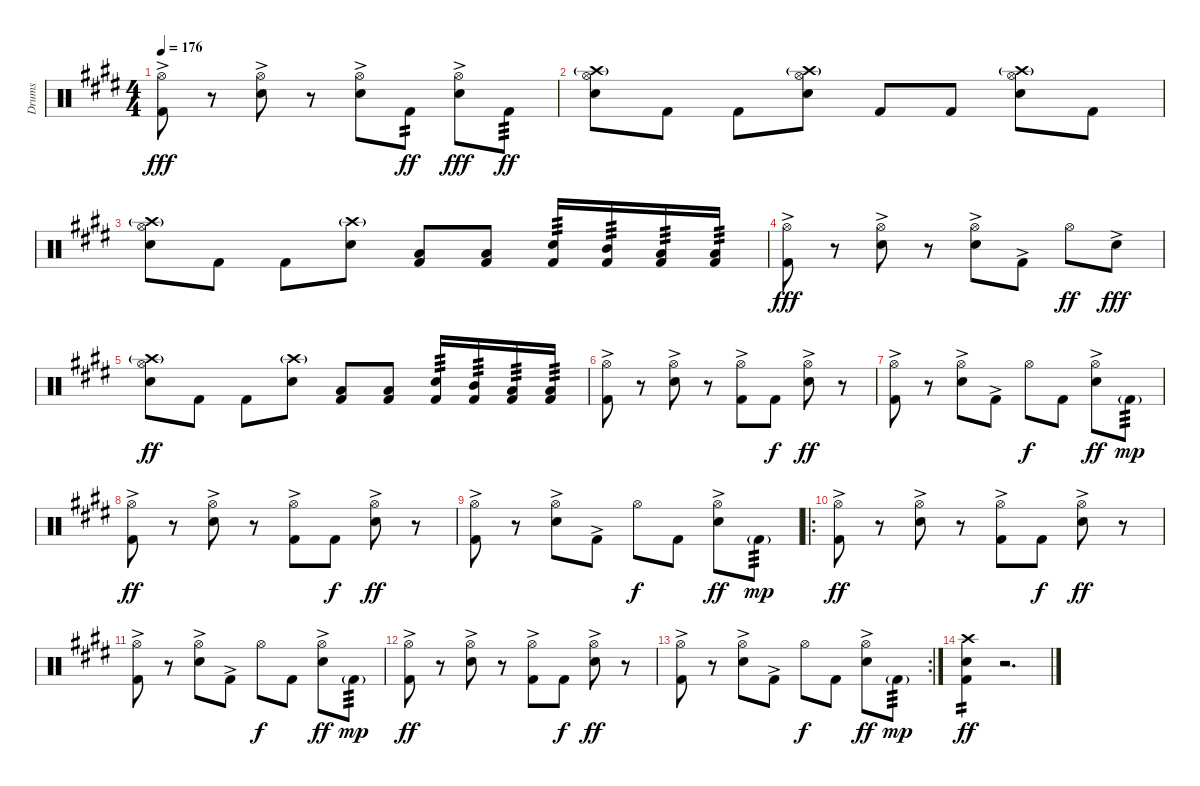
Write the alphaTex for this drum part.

\track ("Drums" "Drums") {instrument percussion}
\staff {score}
\articulation defaults
\ts (4 4)
\tempo 176
\clef neutral
\ks e
("Hi-Hat (open)" "Kick (hit) 2"{ac}).8{dy fff} r.8 ("Hi-Hat (open)" "Snare (hit) 2"{ac}).8 r.8 ("Hi-Hat (open)" "Snare (hit) 2"{ac}).8 "Kick (hit) 2".8{tp 2 dy ff} ("Hi-Hat (open)" "Snare (hit) 2"{ac}).8{dy fff} "Kick (hit) 2".8{tp 3 dy ff} |
("Crash high (hit)"{g} "Hi-Hat (open)" "Snare (hit) 2").8 "Kick (hit) 2".8 "Kick (hit) 2".8 ("Crash high (hit)"{g} "Hi-Hat (open)" "Snare (hit) 2").8 "Kick (hit) 2".8 "Kick (hit) 2".8 ("Crash high (hit)"{g} "Hi-Hat (open)" "Snare (hit) 2").8 "Kick (hit) 2".8 |
("Crash high (hit)"{g} "Hi-Hat (open)" "Snare (hit) 2").8 "Kick (hit) 2".8 "Kick (hit) 2".8 ("Crash high (hit)"{g} "Snare (hit) 2").8 ("Low Floor Tom (hit)" "Kick (hit) 2").8 ("Low Floor Tom (hit)" "Kick (hit) 2").8 ("Snare (hit) 2" "Kick (hit) 2").16{tp 3} ("Mid Tom (hit)" "Kick (hit) 2").16{tp 3} ("Low Tom (hit)" "Kick (hit) 2").16{tp 3} ("Low Floor Tom (hit)" "Kick (hit) 2").16{tp 3} |
("Hi-Hat (open)" "Kick (hit) 2"{ac}).8{dy fff} r.8 ("Hi-Hat (open)" "Snare (hit) 2"{ac}).8 r.8 ("Hi-Hat (open)" "Snare (hit) 2"{ac}).8 "Kick (hit) 2"{ac}.8 "Hi-Hat (open)".8{dy ff} "Snare (hit) 2"{ac}.8{dy fff} |
("Crash high (hit)"{g} "Hi-Hat (open)" "Snare (hit) 2").8{dy ff} "Kick (hit) 2".8 "Kick (hit) 2".8 ("Crash high (hit)"{g} "Snare (hit) 2").8 ("Low Floor Tom (hit)" "Kick (hit) 2").8 ("Low Floor Tom (hit)" "Kick (hit) 2").8 ("Snare (hit) 2" "Kick (hit) 2").16{tp 3} ("Mid Tom (hit)" "Kick (hit) 2").16{tp 3} ("Low Tom (hit)" "Kick (hit) 2").16{tp 3} ("Low Floor Tom (hit)" "Kick (hit) 2").16{tp 3} |
("Hi-Hat (open)" "Kick (hit) 2"{ac}).8 r.8 ("Hi-Hat (open)" "Snare (hit) 2"{ac}).8 r.8 ("Hi-Hat (open)" "Kick (hit) 2"{ac}).8 "Kick (hit) 2".8{dy f} ("Hi-Hat (open)" "Snare (hit) 2"{ac}).8{dy ff} r.8 |
("Hi-Hat (open)" "Kick (hit) 2"{ac}).8 r.8 ("Hi-Hat (open)" "Snare (hit) 2"{ac}).8 "Kick (hit) 2"{ac}.8 "Hi-Hat (open)".8{dy f} "Kick (hit) 2".8 ("Hi-Hat (open)" "Snare (hit) 2"{ac}).8{dy ff} "Kick (hit) 2"{g}.8{tp 3 dy mp} |
("Hi-Hat (open)" "Kick (hit) 2"{ac}).8{dy ff} r.8 ("Hi-Hat (open)" "Snare (hit) 2"{ac}).8 r.8 ("Hi-Hat (open)" "Kick (hit) 2"{ac}).8 "Kick (hit) 2".8{dy f} ("Hi-Hat (open)" "Snare (hit) 2"{ac}).8{dy ff} r.8 |
("Hi-Hat (open)" "Kick (hit) 2"{ac}).8 r.8 ("Hi-Hat (open)" "Snare (hit) 2"{ac}).8 "Kick (hit) 2"{ac}.8 "Hi-Hat (open)".8{dy f} "Kick (hit) 2".8 ("Hi-Hat (open)" "Snare (hit) 2"{ac}).8{dy ff} "Kick (hit) 2"{g}.8{tp 3 dy mp} |
\ro
("Hi-Hat (open)" "Kick (hit) 2"{ac}).8{dy ff} r.8 ("Hi-Hat (open)" "Snare (hit) 2"{ac}).8 r.8 ("Hi-Hat (open)" "Kick (hit) 2"{ac}).8 "Kick (hit) 2".8{dy f} ("Hi-Hat (open)" "Snare (hit) 2"{ac}).8{dy ff} r.8 |
("Hi-Hat (open)" "Kick (hit) 2"{ac}).8 r.8 ("Hi-Hat (open)" "Snare (hit) 2"{ac}).8 "Kick (hit) 2"{ac}.8 "Hi-Hat (open)".8{dy f} "Kick (hit) 2".8 ("Hi-Hat (open)" "Snare (hit) 2"{ac}).8{dy ff} "Kick (hit) 2"{g}.8{tp 3 dy mp} |
("Hi-Hat (open)" "Kick (hit) 2"{ac}).8{dy ff} r.8 ("Hi-Hat (open)" "Snare (hit) 2"{ac}).8 r.8 ("Hi-Hat (open)" "Kick (hit) 2"{ac}).8 "Kick (hit) 2".8{dy f} ("Hi-Hat (open)" "Snare (hit) 2"{ac}).8{dy ff} r.8 |
\rc 2
("Hi-Hat (open)" "Kick (hit) 2"{ac}).8 r.8 ("Hi-Hat (open)" "Snare (hit) 2"{ac}).8 "Kick (hit) 2"{ac}.8 "Hi-Hat (open)".8{dy f} "Kick (hit) 2".8 ("Hi-Hat (open)" "Snare (hit) 2"{ac}).8{dy ff} "Kick (hit) 2"{g}.8{tp 3 dy mp} |
("Crash high (hit)" "Snare (hit) 2" "Kick (hit) 2").4{tp 2 dy ff} r.2{d}
